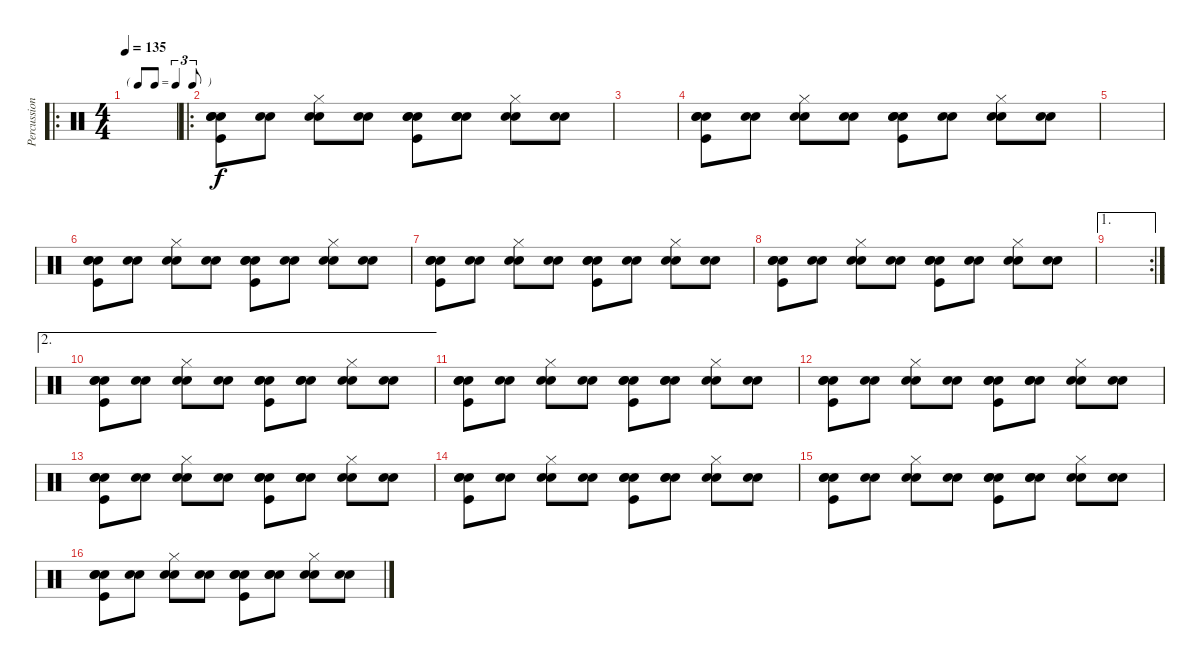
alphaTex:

\track ("Percussions" "Percussion") {instrument percussion}
\staff {score}
\articulation defaults
\ro
\ts (4 4)
\tf triplet8th
\tempo 135
\clef neutral
\ks c
|
\ro
("Snare (hit)" "Kick (hit)" "Snare (hit) 2" "Electric Snare (hit)").8 ("Snare (hit)" "Electric Snare (hit)").8 ("Snare (hit)" "Snare (hit) 2" "Hi-Hat (closed)").8 ("Snare (hit)" "Snare (hit) 2").8 ("Snare (hit)" "Kick (hit)" "Snare (hit) 2" "Electric Snare (hit)").8 ("Snare (hit)" "Snare (hit) 2" "Electric Snare (hit)").8 ("Snare (hit)" "Snare (hit) 2" "Hi-Hat (closed)").8 ("Snare (hit)" "Snare (hit) 2").8 |
|
("Snare (hit)" "Kick (hit)" "Snare (hit) 2" "Electric Snare (hit)").8 ("Snare (hit)" "Electric Snare (hit)").8 ("Snare (hit)" "Snare (hit) 2" "Hi-Hat (closed)").8 ("Snare (hit)" "Snare (hit) 2").8 ("Snare (hit)" "Kick (hit)" "Snare (hit) 2" "Electric Snare (hit)").8 ("Snare (hit)" "Electric Snare (hit)").8 ("Snare (hit)" "Snare (hit) 2" "Hi-Hat (closed)").8 ("Snare (hit)" "Snare (hit) 2").8 |
|
("Snare (hit)" "Kick (hit)" "Snare (hit) 2" "Electric Snare (hit)").8 ("Snare (hit)" "Electric Snare (hit)").8 ("Snare (hit)" "Snare (hit) 2" "Hi-Hat (closed)").8 ("Snare (hit)" "Snare (hit) 2").8 ("Snare (hit)" "Kick (hit)" "Snare (hit) 2" "Electric Snare (hit)").8 ("Snare (hit)" "Electric Snare (hit)").8 ("Snare (hit)" "Snare (hit) 2" "Hi-Hat (closed)").8 ("Snare (hit)" "Snare (hit) 2").8 |
("Snare (hit)" "Kick (hit)" "Snare (hit) 2" "Electric Snare (hit)").8 ("Snare (hit)" "Electric Snare (hit)").8 ("Snare (hit)" "Snare (hit) 2" "Hi-Hat (closed)").8 ("Snare (hit)" "Snare (hit) 2").8 ("Snare (hit)" "Kick (hit)" "Snare (hit) 2" "Electric Snare (hit)").8 ("Snare (hit)" "Electric Snare (hit)").8 ("Snare (hit)" "Snare (hit) 2" "Hi-Hat (closed)").8 ("Snare (hit)" "Snare (hit) 2").8 |
("Snare (hit)" "Kick (hit)" "Snare (hit) 2" "Electric Snare (hit)").8 ("Snare (hit)" "Electric Snare (hit)").8 ("Snare (hit)" "Snare (hit) 2" "Hi-Hat (closed)").8 ("Snare (hit)" "Snare (hit) 2").8 ("Snare (hit)" "Kick (hit)" "Snare (hit) 2" "Electric Snare (hit)").8 ("Snare (hit)" "Electric Snare (hit)").8 ("Snare (hit)" "Snare (hit) 2" "Hi-Hat (closed)").8 ("Snare (hit)" "Snare (hit) 2").8 |
\ae 1
\rc 2
|
\ae 2
("Snare (hit)" "Kick (hit)" "Snare (hit) 2" "Electric Snare (hit)").8 ("Snare (hit)" "Electric Snare (hit)").8 ("Snare (hit)" "Snare (hit) 2" "Hi-Hat (closed)").8 ("Snare (hit)" "Snare (hit) 2").8 ("Snare (hit)" "Kick (hit)" "Snare (hit) 2" "Electric Snare (hit)").8 ("Snare (hit)" "Snare (hit) 2" "Electric Snare (hit)").8 ("Snare (hit)" "Snare (hit) 2" "Hi-Hat (closed)").8 ("Snare (hit)" "Snare (hit) 2").8 |
("Snare (hit)" "Kick (hit)" "Snare (hit) 2" "Electric Snare (hit)").8 ("Snare (hit)" "Electric Snare (hit)").8 ("Snare (hit)" "Snare (hit) 2" "Hi-Hat (closed)").8 ("Snare (hit)" "Snare (hit) 2").8 ("Snare (hit)" "Kick (hit)" "Snare (hit) 2" "Electric Snare (hit)").8 ("Snare (hit)" "Snare (hit) 2" "Electric Snare (hit)").8 ("Snare (hit)" "Snare (hit) 2" "Hi-Hat (closed)").8 ("Snare (hit)" "Snare (hit) 2").8 |
("Snare (hit)" "Kick (hit)" "Snare (hit) 2" "Electric Snare (hit)").8 ("Snare (hit)" "Electric Snare (hit)").8 ("Snare (hit)" "Snare (hit) 2" "Hi-Hat (closed)").8 ("Snare (hit)" "Snare (hit) 2").8 ("Snare (hit)" "Kick (hit)" "Snare (hit) 2" "Electric Snare (hit)").8 ("Snare (hit)" "Snare (hit) 2" "Electric Snare (hit)").8 ("Snare (hit)" "Snare (hit) 2" "Hi-Hat (closed)").8 ("Snare (hit)" "Snare (hit) 2").8 |
("Snare (hit)" "Kick (hit)" "Snare (hit) 2" "Electric Snare (hit)").8 ("Snare (hit)" "Electric Snare (hit)").8 ("Snare (hit)" "Snare (hit) 2" "Hi-Hat (closed)").8 ("Snare (hit)" "Snare (hit) 2").8 ("Snare (hit)" "Kick (hit)" "Snare (hit) 2" "Electric Snare (hit)").8 ("Snare (hit)" "Snare (hit) 2" "Electric Snare (hit)").8 ("Snare (hit)" "Snare (hit) 2" "Hi-Hat (closed)").8 ("Snare (hit)" "Snare (hit) 2").8 |
("Snare (hit)" "Kick (hit)" "Snare (hit) 2" "Electric Snare (hit)").8 ("Snare (hit)" "Electric Snare (hit)").8 ("Snare (hit)" "Snare (hit) 2" "Hi-Hat (closed)").8 ("Snare (hit)" "Snare (hit) 2").8 ("Snare (hit)" "Kick (hit)" "Snare (hit) 2" "Electric Snare (hit)").8 ("Snare (hit)" "Snare (hit) 2" "Electric Snare (hit)").8 ("Snare (hit)" "Snare (hit) 2" "Hi-Hat (closed)").8 ("Snare (hit)" "Snare (hit) 2").8 |
("Snare (hit)" "Kick (hit)" "Snare (hit) 2" "Electric Snare (hit)").8 ("Snare (hit)" "Electric Snare (hit)").8 ("Snare (hit)" "Snare (hit) 2" "Hi-Hat (closed)").8 ("Snare (hit)" "Snare (hit) 2").8 ("Snare (hit)" "Kick (hit)" "Snare (hit) 2" "Electric Snare (hit)").8 ("Snare (hit)" "Snare (hit) 2" "Electric Snare (hit)").8 ("Snare (hit)" "Snare (hit) 2" "Hi-Hat (closed)").8 ("Snare (hit)" "Snare (hit) 2").8 |
("Snare (hit)" "Kick (hit)" "Snare (hit) 2" "Electric Snare (hit)").8 ("Snare (hit)" "Electric Snare (hit)").8 ("Snare (hit)" "Snare (hit) 2" "Hi-Hat (closed)").8 ("Snare (hit)" "Snare (hit) 2").8 ("Snare (hit)" "Kick (hit)" "Snare (hit) 2" "Electric Snare (hit)").8 ("Snare (hit)" "Snare (hit) 2" "Electric Snare (hit)").8 ("Snare (hit)" "Snare (hit) 2" "Hi-Hat (closed)").8 ("Snare (hit)" "Snare (hit) 2").8
